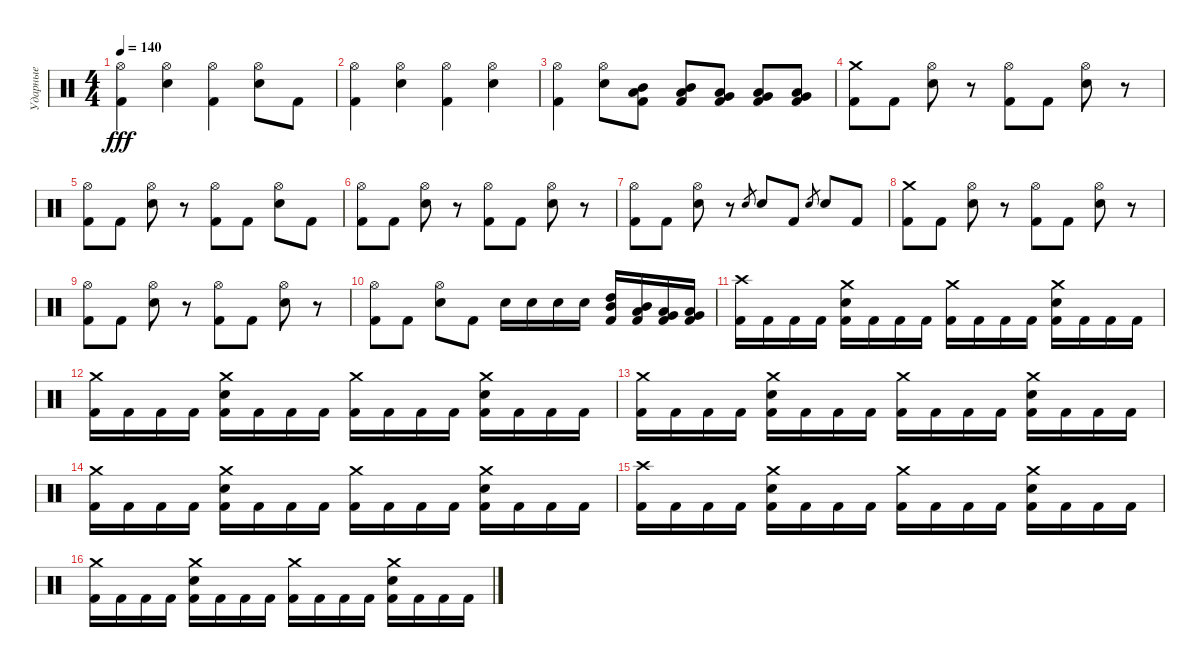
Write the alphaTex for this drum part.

\track ("Ударные" "Ударные") {instrument percussion}
\staff {score}
\articulation defaults
\ts (4 4)
\tempo 140
\clef neutral
\ks c
("Hi-Hat (open)" "Kick (hit) 2").4{dy fff} ("Hi-Hat (open)" "Electric Snare (hit)").4 ("Hi-Hat (open)" "Kick (hit) 2").4 ("Hi-Hat (open)" "Electric Snare (hit)").8 "Kick (hit) 2".8 |
("Hi-Hat (open)" "Kick (hit) 2").4 ("Hi-Hat (open)" "Electric Snare (hit)").4 ("Hi-Hat (open)" "Kick (hit) 2").4 ("Hi-Hat (open)" "Electric Snare (hit)").4 |
("Hi-Hat (open)" "Kick (hit) 2").4 ("Hi-Hat (open)" "Electric Snare (hit)").8 ("Mid Tom (hit)" "Low Tom (hit)" "Kick (hit) 2").8 ("Mid Tom (hit)" "Low Tom (hit)" "Kick (hit) 2").8 ("Very Low Tom (hit)" "Low Tom (hit)" "Kick (hit) 2").8 ("Very Low Tom (hit)" "Low Floor Tom (hit)" "Kick (hit) 2").8 ("Very Low Tom (hit)" "Low Floor Tom (hit)" "Kick (hit) 2").8 |
("Crash medium (hit)" "Kick (hit) 2").8 "Kick (hit) 2".8 ("Hi-Hat (open)" "Electric Snare (hit)").8 r.8 ("Hi-Hat (open)" "Kick (hit) 2").8 "Kick (hit) 2".8 ("Hi-Hat (open)" "Electric Snare (hit)").8 r.8 |
("Hi-Hat (open)" "Kick (hit) 2").8 "Kick (hit) 2".8 ("Hi-Hat (open)" "Electric Snare (hit)").8 r.8 ("Hi-Hat (open)" "Kick (hit) 2").8 "Kick (hit) 2".8 ("Hi-Hat (open)" "Electric Snare (hit)").8 "Kick (hit) 2".8 |
("Hi-Hat (open)" "Kick (hit) 2").8 "Kick (hit) 2".8 ("Hi-Hat (open)" "Electric Snare (hit)").8 r.8 ("Hi-Hat (open)" "Kick (hit) 2").8 "Kick (hit) 2".8 ("Hi-Hat (open)" "Electric Snare (hit)").8 r.8 |
("Hi-Hat (open)" "Kick (hit) 2").8 "Kick (hit) 2".8 ("Hi-Hat (open)" "Electric Snare (hit)").8 r.8 "Electric Snare (hit)".8{gr} "Electric Snare (hit)".8 "Kick (hit) 2".8 "Electric Snare (hit)".8{gr} "Electric Snare (hit)".8 "Kick (hit) 2".8 |
("Crash medium (hit)" "Kick (hit) 2").8 "Kick (hit) 2".8 ("Hi-Hat (open)" "Electric Snare (hit)").8 r.8 ("Hi-Hat (open)" "Kick (hit) 2").8 "Kick (hit) 2".8 ("Hi-Hat (open)" "Electric Snare (hit)").8 r.8 |
("Hi-Hat (open)" "Kick (hit) 2").8 "Kick (hit) 2".8 ("Hi-Hat (open)" "Electric Snare (hit)").8 r.8 ("Hi-Hat (open)" "Kick (hit) 2").8 "Kick (hit) 2".8 ("Hi-Hat (open)" "Electric Snare (hit)").8 r.8 |
("Hi-Hat (open)" "Kick (hit) 2").8 "Kick (hit) 2".8 ("Hi-Hat (open)" "Electric Snare (hit)").8 "Kick (hit) 2".8 "Electric Snare (hit)".16 "Electric Snare (hit)".16 "Electric Snare (hit)".16 "Electric Snare (hit)".16 ("High Tom (hit)" "Mid Tom (hit)" "Kick (hit) 2").16 ("Mid Tom (hit)" "Low Tom (hit)" "Kick (hit) 2").16 ("Low Tom (hit)" "Very Low Tom (hit)" "Kick (hit) 2").16 ("Very Low Tom (hit)" "Low Floor Tom (hit)" "Kick (hit) 2").16 |
("Crash high (hit)" "Kick (hit) 2").16 "Kick (hit) 2".16 "Kick (hit) 2".16 "Kick (hit) 2".16 ("Crash medium (hit)" "Electric Snare (hit)" "Kick (hit) 2").16 "Kick (hit) 2".16 "Kick (hit) 2".16 "Kick (hit) 2".16 ("Crash medium (hit)" "Kick (hit) 2").16 "Kick (hit) 2".16 "Kick (hit) 2".16 "Kick (hit) 2".16 ("Crash medium (hit)" "Electric Snare (hit)" "Kick (hit) 2").16 "Kick (hit) 2".16 "Kick (hit) 2".16 "Kick (hit) 2".16 |
("Crash medium (hit)" "Kick (hit) 2").16 "Kick (hit) 2".16 "Kick (hit) 2".16 "Kick (hit) 2".16 ("Crash medium (hit)" "Electric Snare (hit)" "Kick (hit) 2").16 "Kick (hit) 2".16 "Kick (hit) 2".16 "Kick (hit) 2".16 ("Crash medium (hit)" "Kick (hit) 2").16 "Kick (hit) 2".16 "Kick (hit) 2".16 "Kick (hit) 2".16 ("Crash medium (hit)" "Electric Snare (hit)" "Kick (hit) 2").16 "Kick (hit) 2".16 "Kick (hit) 2".16 "Kick (hit) 2".16 |
("Crash medium (hit)" "Kick (hit) 2").16 "Kick (hit) 2".16 "Kick (hit) 2".16 "Kick (hit) 2".16 ("Crash medium (hit)" "Electric Snare (hit)" "Kick (hit) 2").16 "Kick (hit) 2".16 "Kick (hit) 2".16 "Kick (hit) 2".16 ("Crash medium (hit)" "Kick (hit) 2").16 "Kick (hit) 2".16 "Kick (hit) 2".16 "Kick (hit) 2".16 ("Crash medium (hit)" "Electric Snare (hit)" "Kick (hit) 2").16 "Kick (hit) 2".16 "Kick (hit) 2".16 "Kick (hit) 2".16 |
("Crash medium (hit)" "Kick (hit) 2").16 "Kick (hit) 2".16 "Kick (hit) 2".16 "Kick (hit) 2".16 ("Crash medium (hit)" "Electric Snare (hit)" "Kick (hit) 2").16 "Kick (hit) 2".16 "Kick (hit) 2".16 "Kick (hit) 2".16 ("Crash medium (hit)" "Kick (hit) 2").16 "Kick (hit) 2".16 "Kick (hit) 2".16 "Kick (hit) 2".16 ("Crash medium (hit)" "Electric Snare (hit)" "Kick (hit) 2").16 "Kick (hit) 2".16 "Kick (hit) 2".16 "Kick (hit) 2".16 |
("Crash high (hit)" "Kick (hit) 2").16 "Kick (hit) 2".16 "Kick (hit) 2".16 "Kick (hit) 2".16 ("Crash medium (hit)" "Electric Snare (hit)" "Kick (hit) 2").16 "Kick (hit) 2".16 "Kick (hit) 2".16 "Kick (hit) 2".16 ("Crash medium (hit)" "Kick (hit) 2").16 "Kick (hit) 2".16 "Kick (hit) 2".16 "Kick (hit) 2".16 ("Crash medium (hit)" "Electric Snare (hit)" "Kick (hit) 2").16 "Kick (hit) 2".16 "Kick (hit) 2".16 "Kick (hit) 2".16 |
("Crash medium (hit)" "Kick (hit) 2").16 "Kick (hit) 2".16 "Kick (hit) 2".16 "Kick (hit) 2".16 ("Crash medium (hit)" "Electric Snare (hit)" "Kick (hit) 2").16 "Kick (hit) 2".16 "Kick (hit) 2".16 "Kick (hit) 2".16 ("Crash medium (hit)" "Kick (hit) 2").16 "Kick (hit) 2".16 "Kick (hit) 2".16 "Kick (hit) 2".16 ("Crash medium (hit)" "Electric Snare (hit)" "Kick (hit) 2").16 "Kick (hit) 2".16 "Kick (hit) 2".16 "Kick (hit) 2".16
